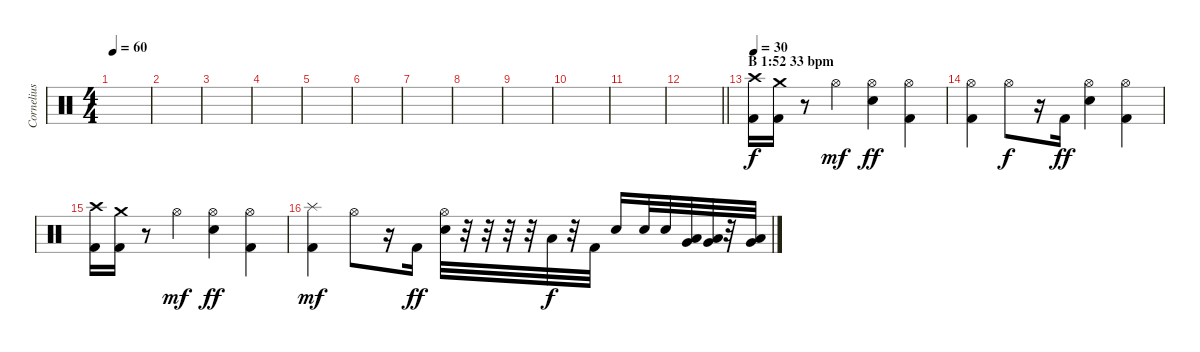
\track ("Cornelius Althammer (Drums)" "Cornelius ") {instrument percussion}
\staff {score}
\articulation defaults
\ts (4 4)
\tempo 60
\clef neutral
\ks c
|
|
|
|
|
|
|
|
|
|
|
\barLineRight lightlight
|
\section ("" "B 1:52 33 bpm")
\tempo 30
("Crash high (hit)" "Kick (hit) 2").16 ("Crash medium (hit)" "Kick (hit) 2").16 r.8 "Hi-Hat (open)".4{dy mf} ("Hi-Hat (open)" "Electric Snare (hit)").4{dy ff} ("Hi-Hat (open)" "Kick (hit) 2").4 |
("Hi-Hat (open)" "Kick (hit) 2").4 "Hi-Hat (open)".8{dy f} r.16 "Kick (hit) 2".16{dy ff} ("Hi-Hat (open)" "Electric Snare (hit)").4 ("Hi-Hat (open)" "Kick (hit) 2").4 |
("Crash high (hit)" "Kick (hit) 2").16 ("Crash medium (hit)" "Kick (hit) 2").16 r.8 "Hi-Hat (open)".4{dy mf} ("Hi-Hat (open)" "Electric Snare (hit)").4{dy ff} ("Hi-Hat (open)" "Kick (hit) 2").4 |
("Splash (hit)" "Kick (hit) 2").4{dy mf} "Hi-Hat (open)".8 r.16 "Kick (hit) 2".16{dy ff} ("Hi-Hat (open)" "Electric Snare (hit)").32 r.32 r.32 r.32 r.32 "Low Tom (hit)".32{dy f} r.32 "Kick (hit) 2".32 "Electric Snare (hit)".16 "Electric Snare (hit)".32 "Electric Snare (hit)".32 ("Low Tom (hit)" "Very Low Tom (hit)").32 ("Low Tom (hit)" "Very Low Tom (hit)").32 r.32 ("Low Tom (hit)" "Very Low Tom (hit)").32
